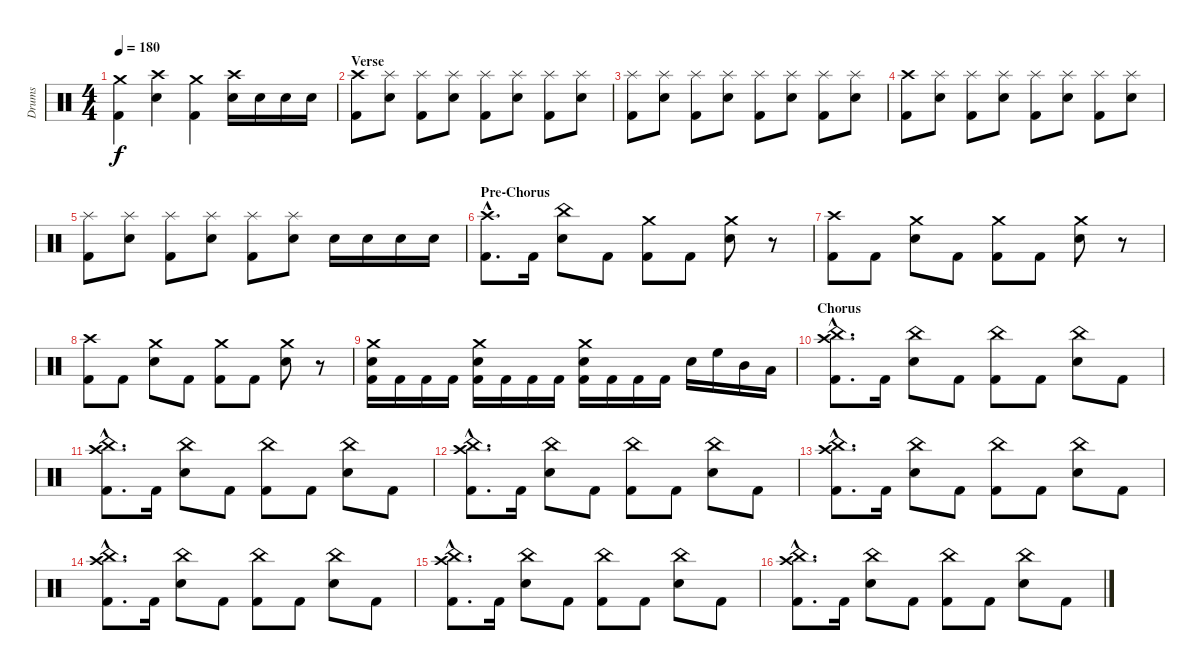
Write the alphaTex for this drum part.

\track ("Drums" "Drums") {instrument percussion}
\staff {score}
\articulation defaults
\ts (4 4)
\tempo 180
\clef neutral
\ks c
("Crash medium (hit)" "Kick (hit) 2").4{dy f} ("Crash high (hit)" "Electric Snare (hit)").4 ("Crash medium (hit)" "Kick (hit) 2").4 ("Crash high (hit)" "Electric Snare (hit)").16 "Electric Snare (hit)".16 "Electric Snare (hit)".16 "Electric Snare (hit)".16 |
\section ("" "Verse")
("Crash high (hit)" "Kick (hit) 2").8 ("Splash (hit)" "Electric Snare (hit)").8 ("Splash (hit)" "Kick (hit) 2").8 ("Splash (hit)" "Electric Snare (hit)").8 ("Splash (hit)" "Kick (hit) 2").8 ("Splash (hit)" "Electric Snare (hit)").8 ("Splash (hit)" "Kick (hit) 2").8 ("Splash (hit)" "Electric Snare (hit)").8 |
("Splash (hit)" "Kick (hit) 2").8 ("Splash (hit)" "Electric Snare (hit)").8 ("Splash (hit)" "Kick (hit) 2").8 ("Splash (hit)" "Electric Snare (hit)").8 ("Splash (hit)" "Kick (hit) 2").8 ("Splash (hit)" "Electric Snare (hit)").8 ("Splash (hit)" "Kick (hit) 2").8 ("Splash (hit)" "Electric Snare (hit)").8 |
("Crash high (hit)" "Kick (hit) 2").8 ("Splash (hit)" "Electric Snare (hit)").8 ("Splash (hit)" "Kick (hit) 2").8 ("Splash (hit)" "Electric Snare (hit)").8 ("Splash (hit)" "Kick (hit) 2").8 ("Splash (hit)" "Electric Snare (hit)").8 ("Splash (hit)" "Kick (hit) 2").8 ("Splash (hit)" "Electric Snare (hit)").8 |
("Splash (hit)" "Kick (hit) 2").8 ("Splash (hit)" "Electric Snare (hit)").8 ("Splash (hit)" "Kick (hit) 2").8 ("Splash (hit)" "Electric Snare (hit)").8 ("Splash (hit)" "Kick (hit) 2").8 ("Splash (hit)" "Electric Snare (hit)").8 "Electric Snare (hit)".16 "Electric Snare (hit)".16 "Electric Snare (hit)".16 "Electric Snare (hit)".16 |
\section ("" "Pre-Chorus")
("Crash high (hit)"{hac} "Kick (hit) 2"{hac}).8{d} "Kick (hit) 2".16 ("China (hit)" "Electric Snare (hit)").8 "Kick (hit) 2".8 ("Crash medium (hit)" "Kick (hit) 2").8 "Kick (hit) 2".8 ("Crash medium (hit)" "Electric Snare (hit)").8 r.8 |
("Crash high (hit)" "Kick (hit) 2").8 "Kick (hit) 2".8 ("Crash medium (hit)" "Electric Snare (hit)").8 "Kick (hit) 2".8 ("Crash medium (hit)" "Kick (hit) 2").8 "Kick (hit) 2".8 ("Crash medium (hit)" "Electric Snare (hit)").8 r.8 |
("Crash high (hit)" "Kick (hit) 2").8 "Kick (hit) 2".8 ("Crash medium (hit)" "Electric Snare (hit)").8 "Kick (hit) 2".8 ("Crash medium (hit)" "Kick (hit) 2").8 "Kick (hit) 2".8 ("Crash medium (hit)" "Electric Snare (hit)").8 r.8 |
("Crash medium (hit)" "Electric Snare (hit)" "Kick (hit) 2").16 "Kick (hit) 2".16 "Kick (hit) 2".16 "Kick (hit) 2".16 ("Crash medium (hit)" "Electric Snare (hit)" "Kick (hit) 2").16 "Kick (hit) 2".16 "Kick (hit) 2".16 "Kick (hit) 2".16 ("Crash medium (hit)" "Electric Snare (hit)" "Kick (hit) 2").16 "Kick (hit) 2".16 "Kick (hit) 2".16 "Kick (hit) 2".16 "Electric Snare (hit)".16 "High Floor Tom (hit)".16 "Mid Tom (hit)".16 "Low Tom (hit)".16 |
\section ("" "Chorus")
("China (hit)"{hac} "Crash high (hit)"{hac} "Kick (hit) 2"{hac}).8{d} "Kick (hit) 2".16 ("China (hit)" "Electric Snare (hit)").8 "Kick (hit) 2".8 ("China (hit)" "Kick (hit) 2").8 "Kick (hit) 2".8 ("China (hit)" "Electric Snare (hit)").8 "Kick (hit) 2".8 |
("China (hit)"{hac} "Crash high (hit)"{hac} "Kick (hit) 2"{hac}).8{d} "Kick (hit) 2".16 ("China (hit)" "Electric Snare (hit)").8 "Kick (hit) 2".8 ("China (hit)" "Kick (hit) 2").8 "Kick (hit) 2".8 ("China (hit)" "Electric Snare (hit)").8 "Kick (hit) 2".8 |
("China (hit)"{hac} "Crash high (hit)"{hac} "Kick (hit) 2"{hac}).8{d} "Kick (hit) 2".16 ("China (hit)" "Electric Snare (hit)").8 "Kick (hit) 2".8 ("China (hit)" "Kick (hit) 2").8 "Kick (hit) 2".8 ("China (hit)" "Electric Snare (hit)").8 "Kick (hit) 2".8 |
("China (hit)"{hac} "Crash high (hit)"{hac} "Kick (hit) 2"{hac}).8{d} "Kick (hit) 2".16 ("China (hit)" "Electric Snare (hit)").8 "Kick (hit) 2".8 ("China (hit)" "Kick (hit) 2").8 "Kick (hit) 2".8 ("China (hit)" "Electric Snare (hit)").8 "Kick (hit) 2".8 |
("China (hit)"{hac} "Crash high (hit)"{hac} "Kick (hit) 2"{hac}).8{d} "Kick (hit) 2".16 ("China (hit)" "Electric Snare (hit)").8 "Kick (hit) 2".8 ("China (hit)" "Kick (hit) 2").8 "Kick (hit) 2".8 ("China (hit)" "Electric Snare (hit)").8 "Kick (hit) 2".8 |
("China (hit)"{hac} "Crash high (hit)"{hac} "Kick (hit) 2"{hac}).8{d} "Kick (hit) 2".16 ("China (hit)" "Electric Snare (hit)").8 "Kick (hit) 2".8 ("China (hit)" "Kick (hit) 2").8 "Kick (hit) 2".8 ("China (hit)" "Electric Snare (hit)").8 "Kick (hit) 2".8 |
("China (hit)"{hac} "Crash high (hit)"{hac} "Kick (hit) 2"{hac}).8{d} "Kick (hit) 2".16 ("China (hit)" "Electric Snare (hit)").8 "Kick (hit) 2".8 ("China (hit)" "Kick (hit) 2").8 "Kick (hit) 2".8 ("China (hit)" "Electric Snare (hit)").8 "Kick (hit) 2".8
